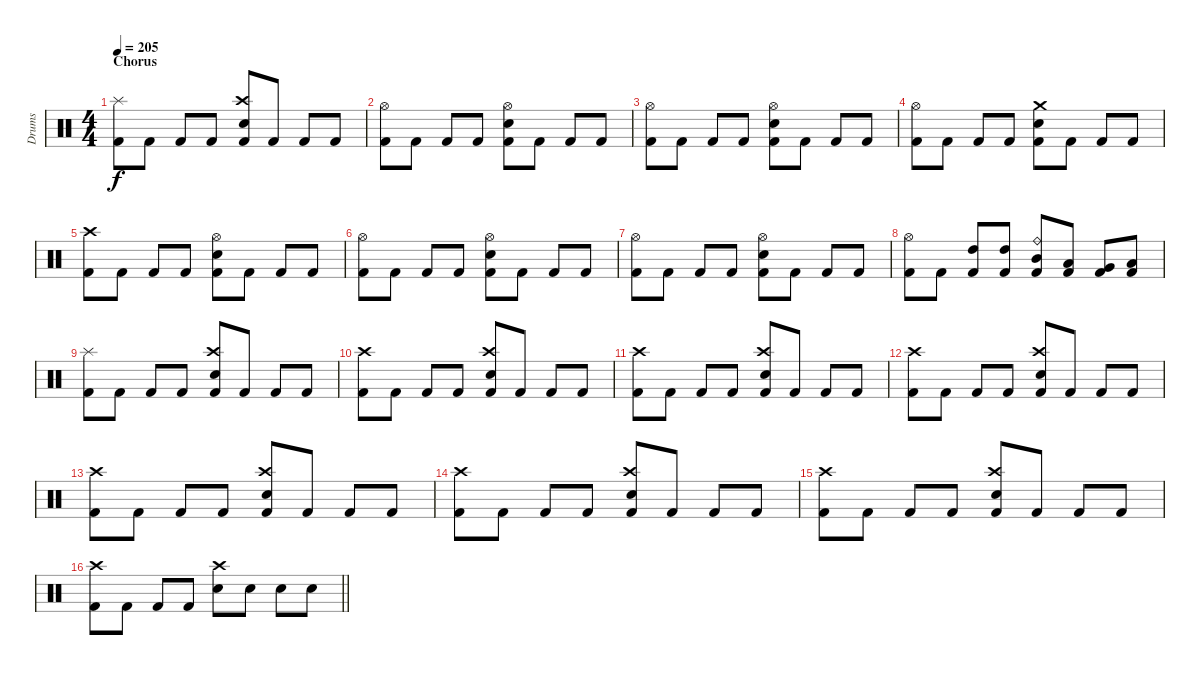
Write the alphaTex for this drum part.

\track ("Drums" "Drums") {instrument percussion}
\staff {score}
\articulation defaults
\ts (4 4)
\section ("" "Chorus")
\tempo 205
\clef neutral
\ks c
("Splash (hit)" "Kick (hit) 2").8{dy f} "Kick (hit) 2".8 "Kick (hit) 2".8 "Kick (hit) 2".8 ("Crash high (hit)" "Snare (hit) 2" "Kick (hit) 2").8 "Kick (hit) 2".8 "Kick (hit) 2".8 "Kick (hit) 2".8 |
("Hi-Hat (open)" "Kick (hit) 2").8 "Kick (hit) 2".8 "Kick (hit) 2".8 "Kick (hit) 2".8 ("Hi-Hat (open)" "Snare (hit) 2" "Kick (hit) 2").8 "Kick (hit) 2".8 "Kick (hit) 2".8 "Kick (hit) 2".8 |
("Hi-Hat (open)" "Kick (hit) 2").8 "Kick (hit) 2".8 "Kick (hit) 2".8 "Kick (hit) 2".8 ("Hi-Hat (open)" "Snare (hit) 2" "Kick (hit) 2").8 "Kick (hit) 2".8 "Kick (hit) 2".8 "Kick (hit) 2".8 |
("Hi-Hat (open)" "Kick (hit) 2").8 "Kick (hit) 2".8 "Kick (hit) 2".8 "Kick (hit) 2".8 ("Crash medium (hit)" "Snare (hit) 2" "Kick (hit) 2").8 "Kick (hit) 2".8 "Kick (hit) 2".8 "Kick (hit) 2".8 |
("Crash high (hit)" "Kick (hit) 2").8 "Kick (hit) 2".8 "Kick (hit) 2".8 "Kick (hit) 2".8 ("Hi-Hat (open)" "Snare (hit) 2" "Kick (hit) 2").8 "Kick (hit) 2".8 "Kick (hit) 2".8 "Kick (hit) 2".8 |
("Hi-Hat (open)" "Kick (hit) 2").8 "Kick (hit) 2".8 "Kick (hit) 2".8 "Kick (hit) 2".8 ("Hi-Hat (open)" "Snare (hit) 2" "Kick (hit) 2").8 "Kick (hit) 2".8 "Kick (hit) 2".8 "Kick (hit) 2".8 |
("Hi-Hat (open)" "Kick (hit) 2").8 "Kick (hit) 2".8 "Kick (hit) 2".8 "Kick (hit) 2".8 ("Hi-Hat (open)" "Snare (hit) 2" "Kick (hit) 2").8 "Kick (hit) 2".8 "Kick (hit) 2".8 "Kick (hit) 2".8 |
("Hi-Hat (open)" "Kick (hit) 2").8 "Kick (hit) 2".8 ("High Tom (hit)" "Kick (hit) 2").8 ("High Tom (hit)" "Kick (hit) 2").8 ("Ride (bell)" "Mid Tom (hit)" "Kick (hit) 2").8 ("Low Tom (hit)" "Kick (hit) 2").8 ("Very Low Tom (hit)" "Kick (hit) 2").8 ("Low Floor Tom (hit)" "Kick (hit) 2").8 |
("Splash (hit)" "Kick (hit) 2").8 "Kick (hit) 2".8 "Kick (hit) 2".8 "Kick (hit) 2".8 ("Crash high (hit)" "Snare (hit) 2" "Kick (hit) 2").8 "Kick (hit) 2".8 "Kick (hit) 2".8 "Kick (hit) 2".8 |
("Crash high (hit)" "Kick (hit) 2").8 "Kick (hit) 2".8 "Kick (hit) 2".8 "Kick (hit) 2".8 ("Crash high (hit)" "Snare (hit) 2" "Kick (hit) 2").8 "Kick (hit) 2".8 "Kick (hit) 2".8 "Kick (hit) 2".8 |
("Crash high (hit)" "Kick (hit) 2").8 "Kick (hit) 2".8 "Kick (hit) 2".8 "Kick (hit) 2".8 ("Crash high (hit)" "Snare (hit) 2" "Kick (hit) 2").8 "Kick (hit) 2".8 "Kick (hit) 2".8 "Kick (hit) 2".8 |
("Crash high (hit)" "Kick (hit) 2").8 "Kick (hit) 2".8 "Kick (hit) 2".8 "Kick (hit) 2".8 ("Crash high (hit)" "Snare (hit) 2" "Kick (hit) 2").8 "Kick (hit) 2".8 "Kick (hit) 2".8 "Kick (hit) 2".8 |
("Crash high (hit)" "Kick (hit) 2").8 "Kick (hit) 2".8 "Kick (hit) 2".8 "Kick (hit) 2".8 ("Crash high (hit)" "Snare (hit) 2" "Kick (hit) 2").8 "Kick (hit) 2".8 "Kick (hit) 2".8 "Kick (hit) 2".8 |
("Crash high (hit)" "Kick (hit) 2").8 "Kick (hit) 2".8 "Kick (hit) 2".8 "Kick (hit) 2".8 ("Crash high (hit)" "Snare (hit) 2" "Kick (hit) 2").8 "Kick (hit) 2".8 "Kick (hit) 2".8 "Kick (hit) 2".8 |
("Crash high (hit)" "Kick (hit) 2").8 "Kick (hit) 2".8 "Kick (hit) 2".8 "Kick (hit) 2".8 ("Crash high (hit)" "Snare (hit) 2" "Kick (hit) 2").8 "Kick (hit) 2".8 "Kick (hit) 2".8 "Kick (hit) 2".8 |
\barLineRight lightlight
("Crash high (hit)" "Kick (hit) 2").8 "Kick (hit) 2".8 "Kick (hit) 2".8 "Kick (hit) 2".8 ("Crash high (hit)" "Snare (hit) 2").8 "Snare (hit) 2".8 "Snare (hit) 2".8 "Snare (hit) 2".8
